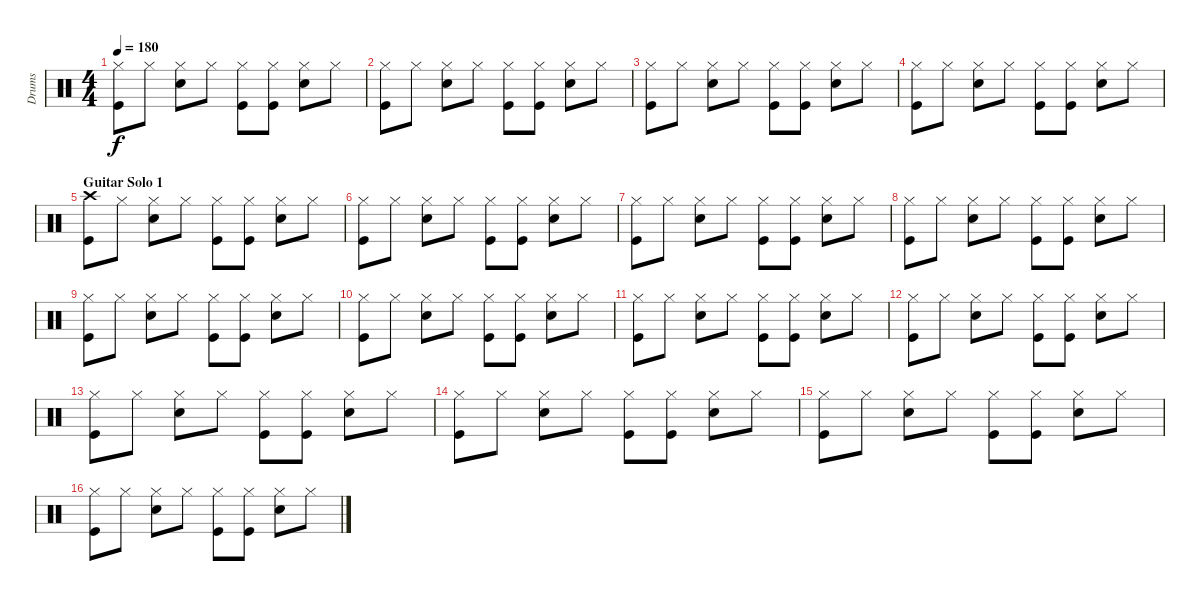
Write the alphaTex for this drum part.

\track ("Drums" "Drums") {instrument percussion}
\staff {score}
\articulation defaults
\ts (4 4)
\tempo 180
\clef neutral
\ks c
("Hi-Hat (closed)" "Kick (hit)").8{dy f} "Hi-Hat (closed)".8 ("Hi-Hat (closed)" "Electric Snare (hit)").8 "Hi-Hat (closed)".8 ("Kick (hit)" "Hi-Hat (closed)").8 ("Hi-Hat (closed)" "Kick (hit)").8 ("Hi-Hat (closed)" "Electric Snare (hit)").8 "Hi-Hat (closed)".8 |
("Hi-Hat (closed)" "Kick (hit)").8 "Hi-Hat (closed)".8 ("Hi-Hat (closed)" "Electric Snare (hit)").8 "Hi-Hat (closed)".8 ("Kick (hit)" "Hi-Hat (closed)").8 ("Hi-Hat (closed)" "Kick (hit)").8 ("Hi-Hat (closed)" "Electric Snare (hit)").8 "Hi-Hat (closed)".8 |
("Hi-Hat (closed)" "Kick (hit)").8 "Hi-Hat (closed)".8 ("Hi-Hat (closed)" "Electric Snare (hit)").8 "Hi-Hat (closed)".8 ("Kick (hit)" "Hi-Hat (closed)").8 ("Hi-Hat (closed)" "Kick (hit)").8 ("Hi-Hat (closed)" "Electric Snare (hit)").8 "Hi-Hat (closed)".8 |
("Hi-Hat (closed)" "Kick (hit)").8 "Hi-Hat (closed)".8 ("Hi-Hat (closed)" "Electric Snare (hit)").8 "Hi-Hat (closed)".8 ("Kick (hit)" "Hi-Hat (closed)").8 ("Hi-Hat (closed)" "Kick (hit)").8 ("Hi-Hat (closed)" "Electric Snare (hit)").8 "Hi-Hat (closed)".8 |
\section ("" "Guitar Solo 1")
("Kick (hit)" "Crash high (hit)").8 "Hi-Hat (closed)".8 ("Hi-Hat (closed)" "Electric Snare (hit)").8 "Hi-Hat (closed)".8 ("Kick (hit)" "Hi-Hat (closed)").8 ("Hi-Hat (closed)" "Kick (hit)").8 ("Hi-Hat (closed)" "Electric Snare (hit)").8 "Hi-Hat (closed)".8 |
("Hi-Hat (closed)" "Kick (hit)").8 "Hi-Hat (closed)".8 ("Hi-Hat (closed)" "Electric Snare (hit)").8 "Hi-Hat (closed)".8 ("Kick (hit)" "Hi-Hat (closed)").8 ("Hi-Hat (closed)" "Kick (hit)").8 ("Hi-Hat (closed)" "Electric Snare (hit)").8 "Hi-Hat (closed)".8 |
("Hi-Hat (closed)" "Kick (hit)").8 "Hi-Hat (closed)".8 ("Hi-Hat (closed)" "Electric Snare (hit)").8 "Hi-Hat (closed)".8 ("Kick (hit)" "Hi-Hat (closed)").8 ("Hi-Hat (closed)" "Kick (hit)").8 ("Hi-Hat (closed)" "Electric Snare (hit)").8 "Hi-Hat (closed)".8 |
("Hi-Hat (closed)" "Kick (hit)").8 "Hi-Hat (closed)".8 ("Hi-Hat (closed)" "Electric Snare (hit)").8 "Hi-Hat (closed)".8 ("Kick (hit)" "Hi-Hat (closed)").8 ("Hi-Hat (closed)" "Kick (hit)").8 ("Hi-Hat (closed)" "Electric Snare (hit)").8 "Hi-Hat (closed)".8 |
("Hi-Hat (closed)" "Kick (hit)").8 "Hi-Hat (closed)".8 ("Hi-Hat (closed)" "Electric Snare (hit)").8 "Hi-Hat (closed)".8 ("Kick (hit)" "Hi-Hat (closed)").8 ("Hi-Hat (closed)" "Kick (hit)").8 ("Hi-Hat (closed)" "Electric Snare (hit)").8 "Hi-Hat (closed)".8 |
("Hi-Hat (closed)" "Kick (hit)").8 "Hi-Hat (closed)".8 ("Hi-Hat (closed)" "Electric Snare (hit)").8 "Hi-Hat (closed)".8 ("Kick (hit)" "Hi-Hat (closed)").8 ("Hi-Hat (closed)" "Kick (hit)").8 ("Hi-Hat (closed)" "Electric Snare (hit)").8 "Hi-Hat (closed)".8 |
("Hi-Hat (closed)" "Kick (hit)").8 "Hi-Hat (closed)".8 ("Hi-Hat (closed)" "Electric Snare (hit)").8 "Hi-Hat (closed)".8 ("Kick (hit)" "Hi-Hat (closed)").8 ("Hi-Hat (closed)" "Kick (hit)").8 ("Hi-Hat (closed)" "Electric Snare (hit)").8 "Hi-Hat (closed)".8 |
("Hi-Hat (closed)" "Kick (hit)").8 "Hi-Hat (closed)".8 ("Hi-Hat (closed)" "Electric Snare (hit)").8 "Hi-Hat (closed)".8 ("Kick (hit)" "Hi-Hat (closed)").8 ("Hi-Hat (closed)" "Kick (hit)").8 ("Hi-Hat (closed)" "Electric Snare (hit)").8 "Hi-Hat (closed)".8 |
("Hi-Hat (closed)" "Kick (hit)").8 "Hi-Hat (closed)".8 ("Hi-Hat (closed)" "Electric Snare (hit)").8 "Hi-Hat (closed)".8 ("Kick (hit)" "Hi-Hat (closed)").8 ("Hi-Hat (closed)" "Kick (hit)").8 ("Hi-Hat (closed)" "Electric Snare (hit)").8 "Hi-Hat (closed)".8 |
("Hi-Hat (closed)" "Kick (hit)").8 "Hi-Hat (closed)".8 ("Hi-Hat (closed)" "Electric Snare (hit)").8 "Hi-Hat (closed)".8 ("Kick (hit)" "Hi-Hat (closed)").8 ("Hi-Hat (closed)" "Kick (hit)").8 ("Hi-Hat (closed)" "Electric Snare (hit)").8 "Hi-Hat (closed)".8 |
("Hi-Hat (closed)" "Kick (hit)").8 "Hi-Hat (closed)".8 ("Hi-Hat (closed)" "Electric Snare (hit)").8 "Hi-Hat (closed)".8 ("Kick (hit)" "Hi-Hat (closed)").8 ("Hi-Hat (closed)" "Kick (hit)").8 ("Hi-Hat (closed)" "Electric Snare (hit)").8 "Hi-Hat (closed)".8 |
("Hi-Hat (closed)" "Kick (hit)").8 "Hi-Hat (closed)".8 ("Hi-Hat (closed)" "Electric Snare (hit)").8 "Hi-Hat (closed)".8 ("Kick (hit)" "Hi-Hat (closed)").8 ("Hi-Hat (closed)" "Kick (hit)").8 ("Hi-Hat (closed)" "Electric Snare (hit)").8 "Hi-Hat (closed)".8
